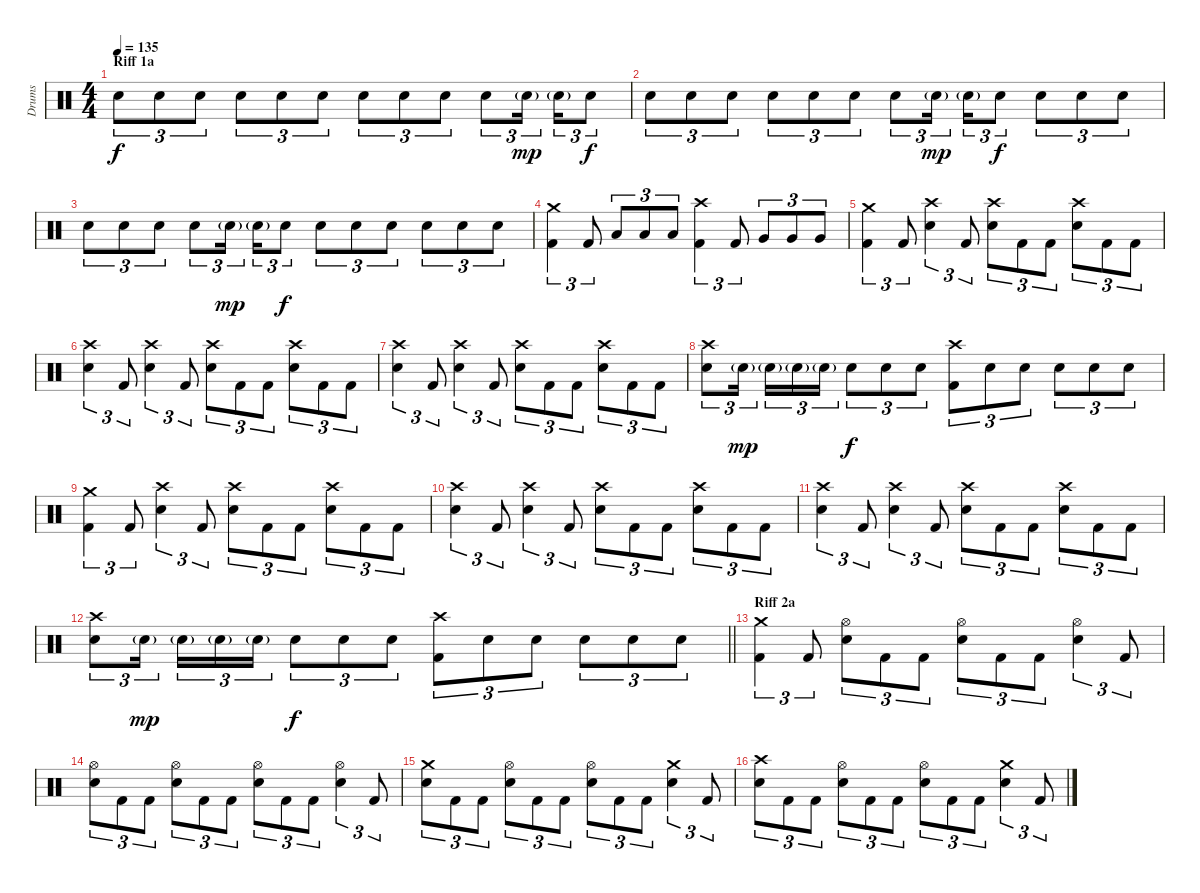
\track ("Drums" "Drums") {instrument percussion}
\staff {score}
\articulation defaults
\ts (4 4)
\section ("" "Riff 1a")
\tempo 135
\clef neutral
\ks c "Electric Snare (hit)".8{tu (3 2) dy f volume 13} "Electric Snare (hit)".8{tu (3 2)} "Electric Snare (hit)".8{tu (3 2)} "Electric Snare (hit)".8{tu (3 2)} "Electric Snare (hit)".8{tu (3 2)} "Electric Snare (hit)".8{tu (3 2)} "Electric Snare (hit)".8{tu (3 2)} "Electric Snare (hit)".8{tu (3 2)} "Electric Snare (hit)".8{tu (3 2)} "Electric Snare (hit)".8{tu (3 2)} "Electric Snare (hit)"{g}.16{tu (3 2) dy mp beam splitsecondary} "Electric Snare (hit)"{g}.16{tu (3 2)} "Electric Snare (hit)".8{tu (3 2) dy f}
|
"Electric Snare (hit)".8{tu (3 2)} "Electric Snare (hit)".8{tu (3 2)} "Electric Snare (hit)".8{tu (3 2)} "Electric Snare (hit)".8{tu (3 2)} "Electric Snare (hit)".8{tu (3 2)} "Electric Snare (hit)".8{tu (3 2)} "Electric Snare (hit)".8{tu (3 2)} "Electric Snare (hit)"{g}.16{tu (3 2) dy mp beam splitsecondary} "Electric Snare (hit)"{g}.16{tu (3 2)} "Electric Snare (hit)".8{tu (3 2) dy f} "Electric Snare (hit)".8{tu (3 2)} "Electric Snare (hit)".8{tu (3 2)} "Electric Snare (hit)".8{tu (3 2)} |
"Electric Snare (hit)".8{tu (3 2)} "Electric Snare (hit)".8{tu (3 2)} "Electric Snare (hit)".8{tu (3 2)} "Electric Snare (hit)".8{tu (3 2)} "Electric Snare (hit)"{g}.16{tu (3 2) dy mp beam splitsecondary} "Electric Snare (hit)"{g}.16{tu (3 2)} "Electric Snare (hit)".8{tu (3 2) dy f} "Electric Snare (hit)".8{tu (3 2)} "Electric Snare (hit)".8{tu (3 2)} "Electric Snare (hit)".8{tu (3 2)} "Electric Snare (hit)".8{tu (3 2)} "Electric Snare (hit)".8{tu (3 2)} "Electric Snare (hit)".8{tu (3 2)} |
("Crash medium (hit)" "Kick (hit) 2").4{tu (3 2)} "Kick (hit) 2".8{tu (3 2)} "Low Tom (hit)".8{tu (3 2)} "Low Tom (hit)".8{tu (3 2)} "Low Tom (hit)".8{tu (3 2)} ("Kick (hit) 2" "Crash high (hit)").4{tu (3 2)} "Kick (hit) 2".8{tu (3 2)} "Very Low Tom (hit)".8{tu (3 2)} "Very Low Tom (hit)".8{tu (3 2)} "Very Low Tom (hit)".8{tu (3 2)} |
("Kick (hit) 2" "Crash medium (hit)").4{tu (3 2)} "Kick (hit) 2".8{tu (3 2)} ("Crash high (hit)" "Electric Snare (hit)").4{tu (3 2)} "Kick (hit) 2".8{tu (3 2)} ("Crash high (hit)" "Electric Snare (hit)").8{tu (3 2)} "Kick (hit) 2".8{tu (3 2)} "Kick (hit) 2".8{tu (3 2)} ("Crash high (hit)" "Electric Snare (hit)").8{tu (3 2)} "Kick (hit) 2".8{tu (3 2)} "Kick (hit) 2".8{tu (3 2)} |
("Crash high (hit)" "Electric Snare (hit)").4{tu (3 2)} "Kick (hit) 2".8{tu (3 2)} ("Crash high (hit)" "Electric Snare (hit)").4{tu (3 2)} "Kick (hit) 2".8{tu (3 2)} ("Crash high (hit)" "Electric Snare (hit)").8{tu (3 2)} "Kick (hit) 2".8{tu (3 2)} "Kick (hit) 2".8{tu (3 2)} ("Crash high (hit)" "Electric Snare (hit)").8{tu (3 2)} "Kick (hit) 2".8{tu (3 2)} "Kick (hit) 2".8{tu (3 2)} |
("Crash high (hit)" "Electric Snare (hit)").4{tu (3 2)} "Kick (hit) 2".8{tu (3 2)} ("Crash high (hit)" "Electric Snare (hit)").4{tu (3 2)} "Kick (hit) 2".8{tu (3 2)} ("Crash high (hit)" "Electric Snare (hit)").8{tu (3 2)} "Kick (hit) 2".8{tu (3 2)} "Kick (hit) 2".8{tu (3 2)} ("Crash high (hit)" "Electric Snare (hit)").8{tu (3 2)} "Kick (hit) 2".8{tu (3 2)} "Kick (hit) 2".8{tu (3 2)} |
("Crash high (hit)" "Electric Snare (hit)").8{tu (3 2)} "Electric Snare (hit)"{g}.16{tu (3 2) dy mp beam splitsecondary} "Electric Snare (hit)"{g}.16{tu (3 2)} "Electric Snare (hit)"{g}.16{tu (3 2)} "Electric Snare (hit)"{g}.16{tu (3 2)} "Electric Snare (hit)".8{tu (3 2) dy f} "Electric Snare (hit)".8{tu (3 2)} "Electric Snare (hit)".8{tu (3 2)} ("Crash high (hit)" "Kick (hit) 2").8{tu (3 2)} "Electric Snare (hit)".8{tu (3 2)} "Electric Snare (hit)".8{tu (3 2)} "Electric Snare (hit)".8{tu (3 2)} "Electric Snare (hit)".8{tu (3 2)} "Electric Snare (hit)".8{tu (3 2)} |
("Kick (hit) 2" "Crash medium (hit)").4{tu (3 2)} "Kick (hit) 2".8{tu (3 2)} ("Crash high (hit)" "Electric Snare (hit)").4{tu (3 2)} "Kick (hit) 2".8{tu (3 2)} ("Crash high (hit)" "Electric Snare (hit)").8{tu (3 2)} "Kick (hit) 2".8{tu (3 2)} "Kick (hit) 2".8{tu (3 2)} ("Crash high (hit)" "Electric Snare (hit)").8{tu (3 2)} "Kick (hit) 2".8{tu (3 2)} "Kick (hit) 2".8{tu (3 2)} |
("Crash high (hit)" "Electric Snare (hit)").4{tu (3 2)} "Kick (hit) 2".8{tu (3 2)} ("Crash high (hit)" "Electric Snare (hit)").4{tu (3 2)} "Kick (hit) 2".8{tu (3 2)} ("Crash high (hit)" "Electric Snare (hit)").8{tu (3 2)} "Kick (hit) 2".8{tu (3 2)} "Kick (hit) 2".8{tu (3 2)} ("Crash high (hit)" "Electric Snare (hit)").8{tu (3 2)} "Kick (hit) 2".8{tu (3 2)} "Kick (hit) 2".8{tu (3 2)} |
("Crash high (hit)" "Electric Snare (hit)").4{tu (3 2)} "Kick (hit) 2".8{tu (3 2)} ("Crash high (hit)" "Electric Snare (hit)").4{tu (3 2)} "Kick (hit) 2".8{tu (3 2)} ("Crash high (hit)" "Electric Snare (hit)").8{tu (3 2)} "Kick (hit) 2".8{tu (3 2)} "Kick (hit) 2".8{tu (3 2)} ("Crash high (hit)" "Electric Snare (hit)").8{tu (3 2)} "Kick (hit) 2".8{tu (3 2)} "Kick (hit) 2".8{tu (3 2)} |
\barLineRight lightlight
("Crash high (hit)" "Electric Snare (hit)").8{tu (3 2)} "Electric Snare (hit)"{g}.16{tu (3 2) dy mp beam splitsecondary} "Electric Snare (hit)"{g}.16{tu (3 2)} "Electric Snare (hit)"{g}.16{tu (3 2)} "Electric Snare (hit)"{g}.16{tu (3 2)} "Electric Snare (hit)".8{tu (3 2) dy f} "Electric Snare (hit)".8{tu (3 2)} "Electric Snare (hit)".8{tu (3 2)} ("Crash high (hit)" "Kick (hit) 2").8{tu (3 2)} "Electric Snare (hit)".8{tu (3 2)} "Electric Snare (hit)".8{tu (3 2)} "Electric Snare (hit)".8{tu (3 2)} "Electric Snare (hit)".8{tu (3 2)} "Electric Snare (hit)".8{tu (3 2)} |
\section ("" "Riff 2a")
("Crash medium (hit)" "Kick (hit) 2").4{tu (3 2)} "Kick (hit) 2".8{tu (3 2)} ("Hi-Hat (open)" "Electric Snare (hit)").8{tu (3 2)} "Kick (hit) 2".8{tu (3 2)} "Kick (hit) 2".8{tu (3 2)} ("Hi-Hat (open)" "Electric Snare (hit)").8{tu (3 2)} "Kick (hit) 2".8{tu (3 2)} "Kick (hit) 2".8{tu (3 2)} ("Electric Snare (hit)" "Hi-Hat (open)").4{tu (3 2)} "Kick (hit) 2".8{tu (3 2)} |
("Hi-Hat (open)" "Electric Snare (hit)").8{tu (3 2)} "Kick (hit) 2".8{tu (3 2)} "Kick (hit) 2".8{tu (3 2)} ("Hi-Hat (open)" "Electric Snare (hit)").8{tu (3 2)} "Kick (hit) 2".8{tu (3 2)} "Kick (hit) 2".8{tu (3 2)} ("Hi-Hat (open)" "Electric Snare (hit)").8{tu (3 2)} "Kick (hit) 2".8{tu (3 2)} "Kick (hit) 2".8{tu (3 2)} ("Electric Snare (hit)" "Hi-Hat (open)").4{tu (3 2)} "Kick (hit) 2".8{tu (3 2)} |
("Crash medium (hit)" "Electric Snare (hit)").8{tu (3 2)} "Kick (hit) 2".8{tu (3 2)} "Kick (hit) 2".8{tu (3 2)} ("Hi-Hat (open)" "Electric Snare (hit)").8{tu (3 2)} "Kick (hit) 2".8{tu (3 2)} "Kick (hit) 2".8{tu (3 2)} ("Hi-Hat (open)" "Electric Snare (hit)").8{tu (3 2)} "Kick (hit) 2".8{tu (3 2)} "Kick (hit) 2".8{tu (3 2)} ("Electric Snare (hit)" "Crash medium (hit)").4{tu (3 2)} "Kick (hit) 2".8{tu (3 2)} |
("Crash high (hit)" "Electric Snare (hit)").8{tu (3 2)} "Kick (hit) 2".8{tu (3 2)} "Kick (hit) 2".8{tu (3 2)} ("Hi-Hat (open)" "Electric Snare (hit)").8{tu (3 2)} "Kick (hit) 2".8{tu (3 2)} "Kick (hit) 2".8{tu (3 2)} ("Hi-Hat (open)" "Electric Snare (hit)").8{tu (3 2)} "Kick (hit) 2".8{tu (3 2)} "Kick (hit) 2".8{tu (3 2)} ("Electric Snare (hit)" "Crash medium (hit)").4{tu (3 2)} "Kick (hit) 2".8{tu (3 2)}
